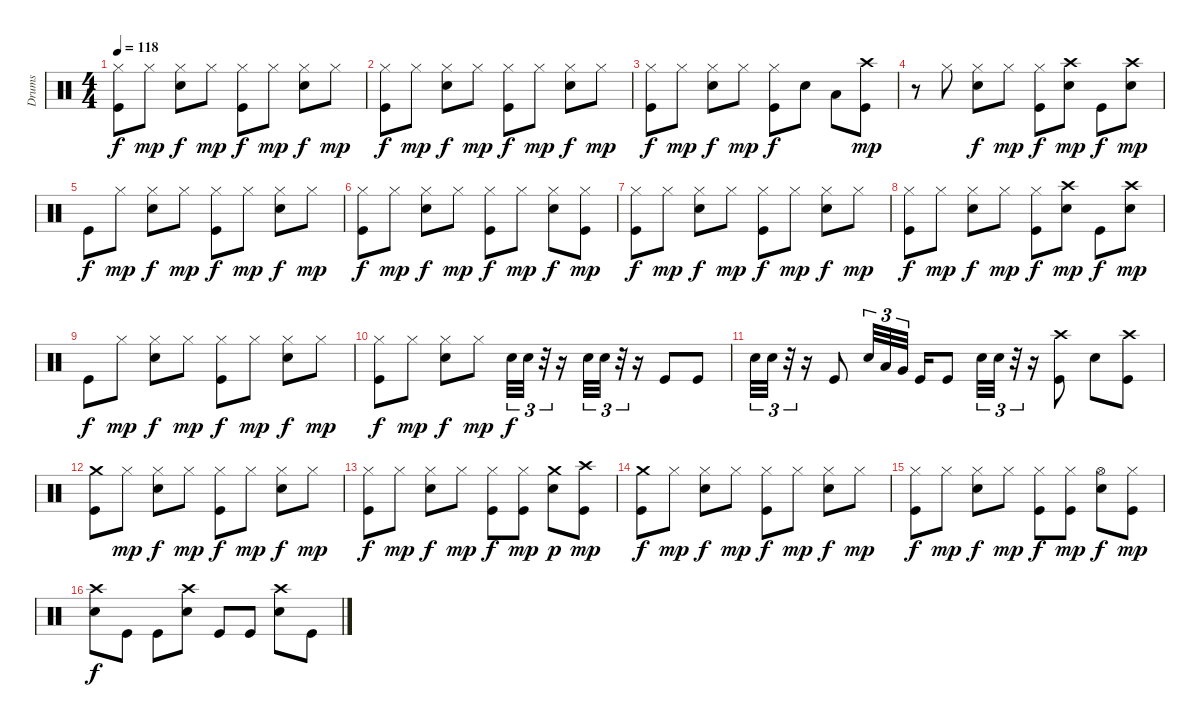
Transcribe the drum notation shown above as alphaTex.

\track ("Drums" "Drums") {instrument percussion}
\staff {score}
\articulation defaults
\ts (4 4)
\tempo 118
\clef neutral
\ks c
("Hi-Hat (closed)" "Kick (hit)").8{dy f} "Hi-Hat (closed)".8{dy mp} ("Hi-Hat (closed)" "Snare (hit) 2").8{dy f} "Hi-Hat (closed)".8{dy mp} ("Hi-Hat (closed)" "Kick (hit)").8{dy f} "Hi-Hat (closed)".8{dy mp} ("Hi-Hat (closed)" "Snare (hit) 2").8{dy f} "Hi-Hat (closed)".8{dy mp} |
("Hi-Hat (closed)" "Kick (hit)").8{dy f} "Hi-Hat (closed)".8{dy mp} ("Hi-Hat (closed)" "Snare (hit) 2").8{dy f} "Hi-Hat (closed)".8{dy mp} ("Hi-Hat (closed)" "Kick (hit)").8{dy f} "Hi-Hat (closed)".8{dy mp} ("Hi-Hat (closed)" "Snare (hit) 2").8{dy f} "Hi-Hat (closed)".8{dy mp} |
("Hi-Hat (closed)" "Kick (hit)").8{dy f} "Hi-Hat (closed)".8{dy mp} ("Hi-Hat (closed)" "Snare (hit) 2").8{dy f} "Hi-Hat (closed)".8{dy mp} ("Hi-Hat (closed)" "Kick (hit)").8{dy f} "Snare (hit) 2".8 "Low Tom (hit)".8 ("Crash high (hit)" "Kick (hit)").8{dy mp} |
r.8 "Hi-Hat (closed)".8 ("Hi-Hat (closed)" "Snare (hit) 2").8{dy f} "Hi-Hat (closed)".8{dy mp} ("Hi-Hat (closed)" "Kick (hit)").8{dy f} ("Crash high (hit)" "Snare (hit) 2").8{dy mp} "Kick (hit)".8{dy f} ("Crash high (hit)" "Snare (hit) 2").8{dy mp} |
"Kick (hit)".8{dy f} "Hi-Hat (closed)".8{dy mp} ("Hi-Hat (closed)" "Snare (hit) 2").8{dy f} "Hi-Hat (closed)".8{dy mp} ("Hi-Hat (closed)" "Kick (hit)").8{dy f} "Hi-Hat (closed)".8{dy mp} ("Hi-Hat (closed)" "Snare (hit) 2").8{dy f} "Hi-Hat (closed)".8{dy mp} |
("Hi-Hat (closed)" "Kick (hit)").8{dy f} "Hi-Hat (closed)".8{dy mp} ("Hi-Hat (closed)" "Snare (hit) 2").8{dy f} "Hi-Hat (closed)".8{dy mp} ("Hi-Hat (closed)" "Kick (hit)").8{dy f} "Hi-Hat (closed)".8{dy mp} ("Hi-Hat (closed)" "Snare (hit) 2").8{dy f} ("Hi-Hat (closed)" "Kick (hit)").8{dy mp} |
("Hi-Hat (closed)" "Kick (hit)").8{dy f} "Hi-Hat (closed)".8{dy mp} ("Hi-Hat (closed)" "Snare (hit) 2").8{dy f} "Hi-Hat (closed)".8{dy mp} ("Hi-Hat (closed)" "Kick (hit)").8{dy f} "Hi-Hat (closed)".8{dy mp} ("Hi-Hat (closed)" "Snare (hit) 2").8{dy f} "Hi-Hat (closed)".8{dy mp} |
("Hi-Hat (closed)" "Kick (hit)").8{dy f} "Hi-Hat (closed)".8{dy mp} ("Hi-Hat (closed)" "Snare (hit) 2").8{dy f} "Hi-Hat (closed)".8{dy mp} ("Hi-Hat (closed)" "Kick (hit)").8{dy f} ("Crash high (hit)" "Snare (hit) 2").8{dy mp} "Kick (hit)".8{dy f} ("Crash high (hit)" "Snare (hit) 2").8{dy mp} |
"Kick (hit)".8{dy f} "Hi-Hat (closed)".8{dy mp} ("Hi-Hat (closed)" "Snare (hit) 2").8{dy f} "Hi-Hat (closed)".8{dy mp} ("Hi-Hat (closed)" "Kick (hit)").8{dy f} "Hi-Hat (closed)".8{dy mp} ("Hi-Hat (closed)" "Snare (hit) 2").8{dy f} "Hi-Hat (closed)".8{dy mp} |
("Hi-Hat (closed)" "Kick (hit)").8{dy f} "Hi-Hat (closed)".8{dy mp} ("Hi-Hat (closed)" "Snare (hit) 2").8{dy f} "Hi-Hat (closed)".8{dy mp} "Snare (hit) 2".32{tu (3 2) dy f} "Snare (hit) 2".32{tu (3 2)} r.32{tu (3 2)} r.16 "Snare (hit) 2".32{tu (3 2)} "Snare (hit) 2".32{tu (3 2)} r.32{tu (3 2)} r.16 "Kick (hit)".8 "Kick (hit)".8 |
"Snare (hit) 2".32{tu (3 2)} "Snare (hit) 2".32{tu (3 2)} r.32{tu (3 2)} r.16 "Kick (hit)".8 "Snare (hit) 2".32{tu (3 2)} "Low Tom (hit)".32{tu (3 2)} "Very Low Tom (hit)".32{tu (3 2)} "Kick (hit)".16 "Kick (hit)".8 "Snare (hit) 2".32{tu (3 2)} "Snare (hit) 2".32{tu (3 2)} r.32{tu (3 2)} r.16 ("Crash high (hit)" "Kick (hit)").8 "Snare (hit) 2".8 ("Crash high (hit)" "Kick (hit)").8 |
("Crash medium (hit)" "Kick (hit)").8 "Hi-Hat (closed)".8{dy mp} ("Hi-Hat (closed)" "Snare (hit) 2").8{dy f} "Hi-Hat (closed)".8{dy mp} ("Hi-Hat (closed)" "Kick (hit)").8{dy f} "Hi-Hat (closed)".8{dy mp} ("Hi-Hat (closed)" "Snare (hit) 2").8{dy f} "Hi-Hat (closed)".8{dy mp} |
("Hi-Hat (closed)" "Kick (hit)").8{dy f} "Hi-Hat (closed)".8{dy mp} ("Hi-Hat (closed)" "Snare (hit) 2").8{dy f} "Hi-Hat (closed)".8{dy mp} ("Hi-Hat (closed)" "Kick (hit)").8{dy f} ("Hi-Hat (closed)" "Kick (hit)").8{dy mp} ("Crash medium (hit)" "Snare (hit) 2").8{dy p} ("Crash high (hit)" "Kick (hit)").8{dy mp} |
("Crash medium (hit)" "Kick (hit)").8{dy f} "Hi-Hat (closed)".8{dy mp} ("Hi-Hat (closed)" "Snare (hit) 2").8{dy f} "Hi-Hat (closed)".8{dy mp} ("Hi-Hat (closed)" "Kick (hit)").8{dy f} "Hi-Hat (closed)".8{dy mp} ("Hi-Hat (closed)" "Snare (hit) 2").8{dy f} "Hi-Hat (closed)".8{dy mp} |
("Hi-Hat (closed)" "Kick (hit)").8{dy f} "Hi-Hat (closed)".8{dy mp} ("Hi-Hat (closed)" "Snare (hit) 2").8{dy f} "Hi-Hat (closed)".8{dy mp} ("Hi-Hat (closed)" "Kick (hit)").8{dy f} ("Hi-Hat (closed)" "Kick (hit)").8{dy mp} ("Hi-Hat (open)" "Snare (hit) 2").8{dy f} ("Hi-Hat (closed)" "Kick (hit)").8{dy mp} |
("Crash high (hit)" "Snare (hit) 2").8{dy f} "Kick (hit)".8 "Kick (hit)".8 ("Crash high (hit)" "Snare (hit) 2").8 "Kick (hit)".8 "Kick (hit)".8 ("Crash high (hit)" "Snare (hit) 2").8 "Kick (hit)".8
